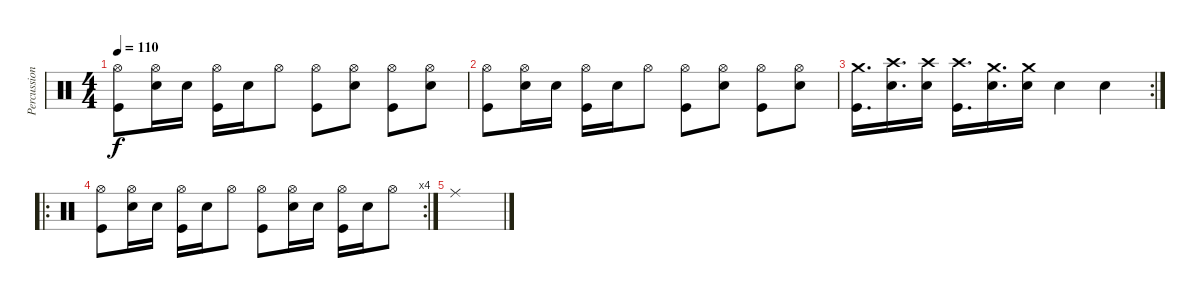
\track ("Percussion" "Percussion") {instrument percussion}
\staff {score}
\articulation defaults
\ts (4 4)
\tempo 110
\clef neutral
\ks c
("Hi-Hat (open)" "Kick (hit)").8{dy f} ("Hi-Hat (open)" "Snare (hit) 2").16 "Snare (hit) 2".16 ("Hi-Hat (open)" "Kick (hit)").16 "Snare (hit) 2".16 "Hi-Hat (open)".8 ("Hi-Hat (open)" "Kick (hit)").8 ("Hi-Hat (open)" "Snare (hit) 2").8 ("Hi-Hat (open)" "Kick (hit)").8 ("Hi-Hat (open)" "Snare (hit) 2").8 |
("Hi-Hat (open)" "Kick (hit)").8 ("Hi-Hat (open)" "Snare (hit) 2").16 "Snare (hit) 2".16 ("Hi-Hat (open)" "Kick (hit)").16 "Snare (hit) 2".16 "Hi-Hat (open)".8 ("Hi-Hat (open)" "Kick (hit)").8 ("Hi-Hat (open)" "Snare (hit) 2").8 ("Hi-Hat (open)" "Kick (hit)").8 ("Hi-Hat (open)" "Snare (hit) 2").8 |
\rc 2
("Crash medium (hit)" "Kick (hit)").16{d} ("Crash high (hit)" "Snare (hit) 2").16{d} ("Crash high (hit)" "Snare (hit) 2").16 ("Crash high (hit)" "Kick (hit)").16{d} ("Crash medium (hit)" "Snare (hit) 2").16{d} ("Crash medium (hit)" "Snare (hit) 2").16 "Snare (hit) 2".4 "Snare (hit) 2".4 |
\ro
\rc 4
("Hi-Hat (open)" "Kick (hit)").8 ("Hi-Hat (open)" "Snare (hit) 2").16 "Snare (hit) 2".16 ("Hi-Hat (open)" "Kick (hit)").16 "Snare (hit) 2".16 "Hi-Hat (open)".8 ("Hi-Hat (open)" "Kick (hit)").8 ("Hi-Hat (open)" "Snare (hit) 2").16 "Snare (hit) 2".16 ("Hi-Hat (open)" "Kick (hit)").16 "Snare (hit) 2".16 "Hi-Hat (open)".8 |
"Ride (middle)".1
